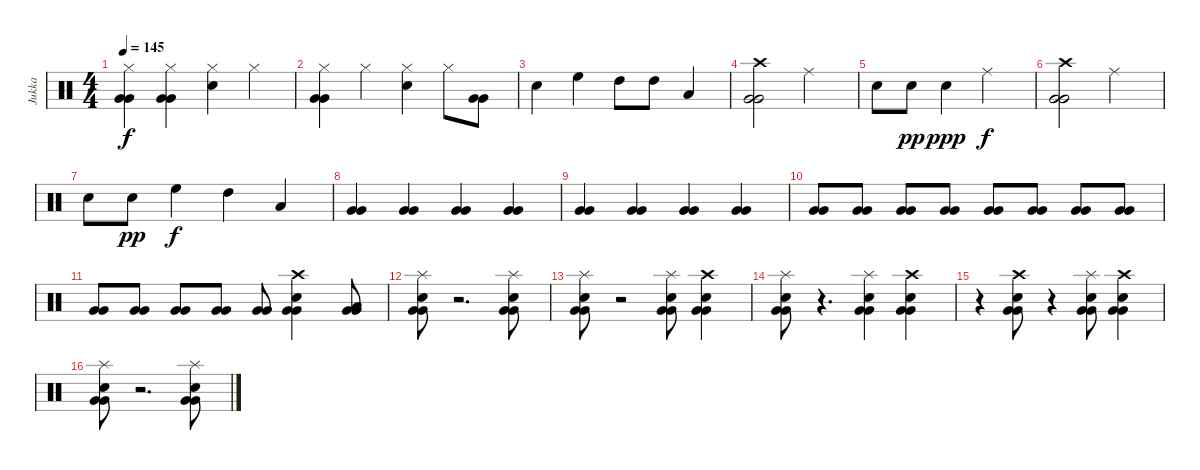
\track ("Jukka" "Jukka") {instrument percussion}
\staff {score}
\articulation defaults
\ts (4 4)
\tempo 145
\clef neutral
\ks c
("Hi-Hat (closed)" "Very Low Tom (hit)" "Very Low Tom (hit)").4{dy f} ("Hi-Hat (closed)" "Very Low Tom (hit)" "Very Low Tom (hit)").4 ("Hi-Hat (closed)" "Electric Snare (hit)").4 "Hi-Hat (closed)".4 |
("Hi-Hat (closed)" "Very Low Tom (hit)" "Very Low Tom (hit)").4 "Hi-Hat (closed)".4 ("Hi-Hat (closed)" "Electric Snare (hit)").4 "Hi-Hat (closed)".8 ("Very Low Tom (hit)" "Very Low Tom (hit)").8 |
"Electric Snare (hit)".4 "High Floor Tom (hit)".4 "High Tom (hit)".8 "High Tom (hit)".8 "Low Tom (hit)".4 |
("Crash high (hit)" "Very Low Tom (hit)" "Very Low Tom (hit)").2 "Ride (middle)".2 |
"Electric Snare (hit)".8 "Electric Snare (hit)".8{dy pp} "Electric Snare (hit)".4{dy ppp} "Ride (middle)".2{dy f} |
("Crash high (hit)" "Very Low Tom (hit)" "Very Low Tom (hit)").2 "Ride (middle)".2 |
"Electric Snare (hit)".8 "Electric Snare (hit)".8{dy pp} "High Floor Tom (hit)".4{dy f} "High Tom (hit)".4 "Low Tom (hit)".4 |
("Very Low Tom (hit)" "Very Low Tom (hit)").4 ("Very Low Tom (hit)" "Very Low Tom (hit)").4 ("Very Low Tom (hit)" "Very Low Tom (hit)").4 ("Very Low Tom (hit)" "Very Low Tom (hit)").4 |
("Very Low Tom (hit)" "Very Low Tom (hit)").4 ("Very Low Tom (hit)" "Very Low Tom (hit)").4 ("Very Low Tom (hit)" "Very Low Tom (hit)").4 ("Very Low Tom (hit)" "Very Low Tom (hit)").4 |
("Very Low Tom (hit)" "Very Low Tom (hit)").8 ("Very Low Tom (hit)" "Very Low Tom (hit)").8 ("Very Low Tom (hit)" "Very Low Tom (hit)").8 ("Very Low Tom (hit)" "Very Low Tom (hit)").8 ("Very Low Tom (hit)" "Very Low Tom (hit)").8 ("Very Low Tom (hit)" "Very Low Tom (hit)").8 ("Very Low Tom (hit)" "Very Low Tom (hit)").8 ("Very Low Tom (hit)" "Very Low Tom (hit)").8 |
("Very Low Tom (hit)" "Very Low Tom (hit)").8 ("Very Low Tom (hit)" "Very Low Tom (hit)").8 ("Very Low Tom (hit)" "Very Low Tom (hit)").8 ("Very Low Tom (hit)" "Very Low Tom (hit)").8 ("Very Low Tom (hit)" "Very Low Tom (hit)").8 ("Crash high (hit)" "Electric Snare (hit)" "Very Low Tom (hit)" "Very Low Tom (hit)").4 ("Low Tom (hit)" "Very Low Tom (hit)" "Very Low Tom (hit)").8 |
("Splash (hit)" "Electric Snare (hit)" "Very Low Tom (hit)" "Very Low Tom (hit)").8 r.2{d} ("Splash (hit)" "Electric Snare (hit)" "Very Low Tom (hit)" "Very Low Tom (hit)").8 |
("Splash (hit)" "Electric Snare (hit)" "Very Low Tom (hit)" "Very Low Tom (hit)").8 r.2 ("Splash (hit)" "Electric Snare (hit)" "Very Low Tom (hit)" "Very Low Tom (hit)").8 ("Crash high (hit)" "Electric Snare (hit)" "Very Low Tom (hit)" "Very Low Tom (hit)").4 |
("Splash (hit)" "Electric Snare (hit)" "Very Low Tom (hit)" "Very Low Tom (hit)").8 r.4{d} ("Splash (hit)" "Electric Snare (hit)" "Very Low Tom (hit)" "Very Low Tom (hit)").4 ("Crash high (hit)" "Electric Snare (hit)" "Very Low Tom (hit)" "Very Low Tom (hit)").4 |
r.4 ("Crash high (hit)" "Electric Snare (hit)" "Very Low Tom (hit)" "Very Low Tom (hit)").8 r.4 ("Splash (hit)" "Electric Snare (hit)" "Very Low Tom (hit)" "Very Low Tom (hit)").8 ("Crash high (hit)" "Electric Snare (hit)" "Very Low Tom (hit)" "Very Low Tom (hit)").4 |
("Splash (hit)" "Electric Snare (hit)" "Very Low Tom (hit)" "Very Low Tom (hit)").8 r.2{d} ("Splash (hit)" "Electric Snare (hit)" "Very Low Tom (hit)" "Very Low Tom (hit)").8
